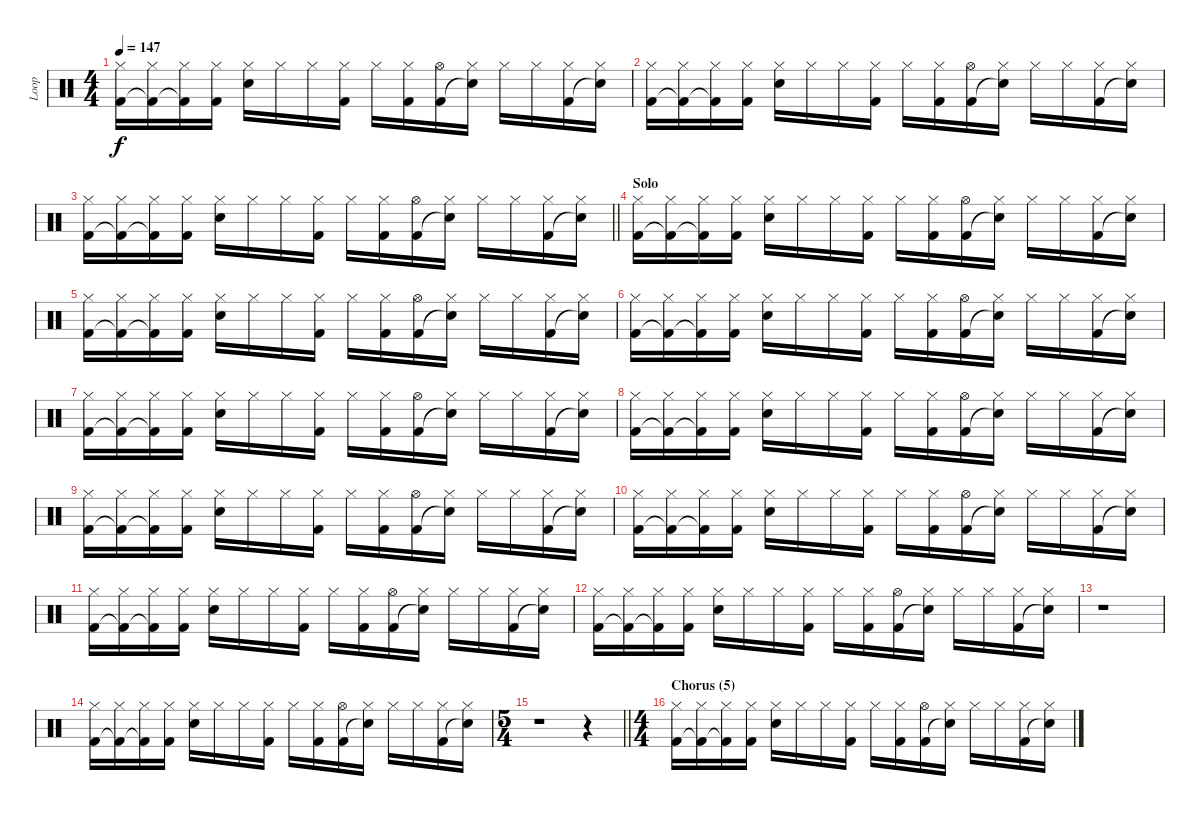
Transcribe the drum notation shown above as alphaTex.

\track ("Loop" "Loop") {instrument percussion}
\staff {score}
\articulation defaults
\ts (4 4)
\tempo 147
\clef neutral
\ks aminor
("Hi-Hat (closed)" "Kick (hit) 2").16{dy f} ("Hi-Hat (closed)" "Kick (hit) 2"{t}).16 ("Hi-Hat (closed)" "Kick (hit) 2"{t}).16 ("Hi-Hat (closed)" "Kick (hit) 2").16 ("Hi-Hat (closed)" "Electric Snare (hit)").16 "Hi-Hat (closed)".16 "Hi-Hat (closed)".16 ("Hi-Hat (closed)" "Kick (hit) 2").16 "Hi-Hat (closed)".16 ("Hi-Hat (closed)" "Kick (hit) 2").16 ("Hi-Hat (open)" "Kick (hit) 2").16 ("Hi-Hat (closed)" "Snare (hit)"{t}).16 "Hi-Hat (closed)".16 "Hi-Hat (closed)".16 ("Hi-Hat (closed)" "Kick (hit) 2").16 ("Hi-Hat (closed)" "Snare (hit)"{t}).16 |
("Hi-Hat (closed)" "Kick (hit) 2").16 ("Hi-Hat (closed)" "Kick (hit) 2"{t}).16 ("Hi-Hat (closed)" "Kick (hit) 2"{t}).16 ("Hi-Hat (closed)" "Kick (hit) 2").16 ("Hi-Hat (closed)" "Electric Snare (hit)").16 "Hi-Hat (closed)".16 "Hi-Hat (closed)".16 ("Hi-Hat (closed)" "Kick (hit) 2").16 "Hi-Hat (closed)".16 ("Hi-Hat (closed)" "Kick (hit) 2").16 ("Hi-Hat (open)" "Kick (hit) 2").16 ("Hi-Hat (closed)" "Snare (hit)"{t}).16 "Hi-Hat (closed)".16 "Hi-Hat (closed)".16 ("Hi-Hat (closed)" "Kick (hit) 2").16 ("Hi-Hat (closed)" "Snare (hit)"{t}).16 |
\barLineRight lightlight
("Hi-Hat (closed)" "Kick (hit) 2").16 ("Hi-Hat (closed)" "Kick (hit) 2"{t}).16 ("Hi-Hat (closed)" "Kick (hit) 2"{t}).16 ("Hi-Hat (closed)" "Kick (hit) 2").16 ("Hi-Hat (closed)" "Electric Snare (hit)").16 "Hi-Hat (closed)".16 "Hi-Hat (closed)".16 ("Hi-Hat (closed)" "Kick (hit) 2").16 "Hi-Hat (closed)".16 ("Hi-Hat (closed)" "Kick (hit) 2").16 ("Hi-Hat (open)" "Kick (hit) 2").16 ("Hi-Hat (closed)" "Snare (hit)"{t}).16 "Hi-Hat (closed)".16 "Hi-Hat (closed)".16 ("Hi-Hat (closed)" "Kick (hit) 2").16 ("Hi-Hat (closed)" "Snare (hit)"{t}).16 |
\section ("" "Solo")
("Hi-Hat (closed)" "Kick (hit) 2").16 ("Hi-Hat (closed)" "Kick (hit) 2"{t}).16 ("Hi-Hat (closed)" "Kick (hit) 2"{t}).16 ("Hi-Hat (closed)" "Kick (hit) 2").16 ("Hi-Hat (closed)" "Electric Snare (hit)").16 "Hi-Hat (closed)".16 "Hi-Hat (closed)".16 ("Hi-Hat (closed)" "Kick (hit) 2").16 "Hi-Hat (closed)".16 ("Hi-Hat (closed)" "Kick (hit) 2").16 ("Hi-Hat (open)" "Kick (hit) 2").16 ("Hi-Hat (closed)" "Snare (hit)"{t}).16 "Hi-Hat (closed)".16 "Hi-Hat (closed)".16 ("Hi-Hat (closed)" "Kick (hit) 2").16 ("Hi-Hat (closed)" "Snare (hit)"{t}).16 |
("Hi-Hat (closed)" "Kick (hit) 2").16 ("Hi-Hat (closed)" "Kick (hit) 2"{t}).16 ("Hi-Hat (closed)" "Kick (hit) 2"{t}).16 ("Hi-Hat (closed)" "Kick (hit) 2").16 ("Hi-Hat (closed)" "Electric Snare (hit)").16 "Hi-Hat (closed)".16 "Hi-Hat (closed)".16 ("Hi-Hat (closed)" "Kick (hit) 2").16 "Hi-Hat (closed)".16 ("Hi-Hat (closed)" "Kick (hit) 2").16 ("Hi-Hat (open)" "Kick (hit) 2").16 ("Hi-Hat (closed)" "Snare (hit)"{t}).16 "Hi-Hat (closed)".16 "Hi-Hat (closed)".16 ("Hi-Hat (closed)" "Kick (hit) 2").16 ("Hi-Hat (closed)" "Snare (hit)"{t}).16 |
("Hi-Hat (closed)" "Kick (hit) 2").16 ("Hi-Hat (closed)" "Kick (hit) 2"{t}).16 ("Hi-Hat (closed)" "Kick (hit) 2"{t}).16 ("Hi-Hat (closed)" "Kick (hit) 2").16 ("Hi-Hat (closed)" "Electric Snare (hit)").16 "Hi-Hat (closed)".16 "Hi-Hat (closed)".16 ("Hi-Hat (closed)" "Kick (hit) 2").16 "Hi-Hat (closed)".16 ("Hi-Hat (closed)" "Kick (hit) 2").16 ("Hi-Hat (open)" "Kick (hit) 2").16 ("Hi-Hat (closed)" "Snare (hit)"{t}).16 "Hi-Hat (closed)".16 "Hi-Hat (closed)".16 ("Hi-Hat (closed)" "Kick (hit) 2").16 ("Hi-Hat (closed)" "Snare (hit)"{t}).16 |
("Hi-Hat (closed)" "Kick (hit) 2").16 ("Hi-Hat (closed)" "Kick (hit) 2"{t}).16 ("Hi-Hat (closed)" "Kick (hit) 2"{t}).16 ("Hi-Hat (closed)" "Kick (hit) 2").16 ("Hi-Hat (closed)" "Electric Snare (hit)").16 "Hi-Hat (closed)".16 "Hi-Hat (closed)".16 ("Hi-Hat (closed)" "Kick (hit) 2").16 "Hi-Hat (closed)".16 ("Hi-Hat (closed)" "Kick (hit) 2").16 ("Hi-Hat (open)" "Kick (hit) 2").16 ("Hi-Hat (closed)" "Snare (hit)"{t}).16 "Hi-Hat (closed)".16 "Hi-Hat (closed)".16 ("Hi-Hat (closed)" "Kick (hit) 2").16 ("Hi-Hat (closed)" "Snare (hit)"{t}).16 |
("Hi-Hat (closed)" "Kick (hit) 2").16 ("Hi-Hat (closed)" "Kick (hit) 2"{t}).16 ("Hi-Hat (closed)" "Kick (hit) 2"{t}).16 ("Hi-Hat (closed)" "Kick (hit) 2").16 ("Hi-Hat (closed)" "Electric Snare (hit)").16 "Hi-Hat (closed)".16 "Hi-Hat (closed)".16 ("Hi-Hat (closed)" "Kick (hit) 2").16 "Hi-Hat (closed)".16 ("Hi-Hat (closed)" "Kick (hit) 2").16 ("Hi-Hat (open)" "Kick (hit) 2").16 ("Hi-Hat (closed)" "Snare (hit)"{t}).16 "Hi-Hat (closed)".16 "Hi-Hat (closed)".16 ("Hi-Hat (closed)" "Kick (hit) 2").16 ("Hi-Hat (closed)" "Snare (hit)"{t}).16 |
("Hi-Hat (closed)" "Kick (hit) 2").16 ("Hi-Hat (closed)" "Kick (hit) 2"{t}).16 ("Hi-Hat (closed)" "Kick (hit) 2"{t}).16 ("Hi-Hat (closed)" "Kick (hit) 2").16 ("Hi-Hat (closed)" "Electric Snare (hit)").16 "Hi-Hat (closed)".16 "Hi-Hat (closed)".16 ("Hi-Hat (closed)" "Kick (hit) 2").16 "Hi-Hat (closed)".16 ("Hi-Hat (closed)" "Kick (hit) 2").16 ("Hi-Hat (open)" "Kick (hit) 2").16 ("Hi-Hat (closed)" "Snare (hit)"{t}).16 "Hi-Hat (closed)".16 "Hi-Hat (closed)".16 ("Hi-Hat (closed)" "Kick (hit) 2").16 ("Hi-Hat (closed)" "Snare (hit)"{t}).16 |
("Hi-Hat (closed)" "Kick (hit) 2").16 ("Hi-Hat (closed)" "Kick (hit) 2"{t}).16 ("Hi-Hat (closed)" "Kick (hit) 2"{t}).16 ("Hi-Hat (closed)" "Kick (hit) 2").16 ("Hi-Hat (closed)" "Electric Snare (hit)").16 "Hi-Hat (closed)".16 "Hi-Hat (closed)".16 ("Hi-Hat (closed)" "Kick (hit) 2").16 "Hi-Hat (closed)".16 ("Hi-Hat (closed)" "Kick (hit) 2").16 ("Hi-Hat (open)" "Kick (hit) 2").16 ("Hi-Hat (closed)" "Snare (hit)"{t}).16 "Hi-Hat (closed)".16 "Hi-Hat (closed)".16 ("Hi-Hat (closed)" "Kick (hit) 2").16 ("Hi-Hat (closed)" "Snare (hit)"{t}).16 |
("Hi-Hat (closed)" "Kick (hit) 2").16 ("Hi-Hat (closed)" "Kick (hit) 2"{t}).16 ("Hi-Hat (closed)" "Kick (hit) 2"{t}).16 ("Hi-Hat (closed)" "Kick (hit) 2").16 ("Hi-Hat (closed)" "Electric Snare (hit)").16 "Hi-Hat (closed)".16 "Hi-Hat (closed)".16 ("Hi-Hat (closed)" "Kick (hit) 2").16 "Hi-Hat (closed)".16 ("Hi-Hat (closed)" "Kick (hit) 2").16 ("Hi-Hat (open)" "Kick (hit) 2").16 ("Hi-Hat (closed)" "Snare (hit)"{t}).16 "Hi-Hat (closed)".16 "Hi-Hat (closed)".16 ("Hi-Hat (closed)" "Kick (hit) 2").16 ("Hi-Hat (closed)" "Snare (hit)"{t}).16 |
("Hi-Hat (closed)" "Kick (hit) 2").16 ("Hi-Hat (closed)" "Kick (hit) 2"{t}).16 ("Hi-Hat (closed)" "Kick (hit) 2"{t}).16 ("Hi-Hat (closed)" "Kick (hit) 2").16 ("Hi-Hat (closed)" "Electric Snare (hit)").16 "Hi-Hat (closed)".16 "Hi-Hat (closed)".16 ("Hi-Hat (closed)" "Kick (hit) 2").16 "Hi-Hat (closed)".16 ("Hi-Hat (closed)" "Kick (hit) 2").16 ("Hi-Hat (open)" "Kick (hit) 2").16 ("Hi-Hat (closed)" "Snare (hit)"{t}).16 "Hi-Hat (closed)".16 "Hi-Hat (closed)".16 ("Hi-Hat (closed)" "Kick (hit) 2").16 ("Hi-Hat (closed)" "Snare (hit)"{t}).16 |
r.1 |
("Hi-Hat (closed)" "Kick (hit) 2").16 ("Hi-Hat (closed)" "Kick (hit) 2"{t}).16 ("Hi-Hat (closed)" "Kick (hit) 2"{t}).16 ("Hi-Hat (closed)" "Kick (hit) 2").16 ("Hi-Hat (closed)" "Electric Snare (hit)").16 "Hi-Hat (closed)".16 "Hi-Hat (closed)".16 ("Hi-Hat (closed)" "Kick (hit) 2").16 "Hi-Hat (closed)".16 ("Hi-Hat (closed)" "Kick (hit) 2").16 ("Hi-Hat (open)" "Kick (hit) 2").16 ("Hi-Hat (closed)" "Snare (hit)"{t}).16 "Hi-Hat (closed)".16 "Hi-Hat (closed)".16 ("Hi-Hat (closed)" "Kick (hit) 2").16 ("Hi-Hat (closed)" "Snare (hit)"{t}).16 |
\ts (5 4)
\barLineRight lightlight
r.1 r.4 |
\ts (4 4)
\section ("" "Chorus (5)")
("Hi-Hat (closed)" "Kick (hit) 2").16 ("Hi-Hat (closed)" "Kick (hit) 2"{t}).16 ("Hi-Hat (closed)" "Kick (hit) 2"{t}).16 ("Hi-Hat (closed)" "Kick (hit) 2").16 ("Hi-Hat (closed)" "Electric Snare (hit)").16 "Hi-Hat (closed)".16 "Hi-Hat (closed)".16 ("Hi-Hat (closed)" "Kick (hit) 2").16 "Hi-Hat (closed)".16 ("Hi-Hat (closed)" "Kick (hit) 2").16 ("Hi-Hat (open)" "Kick (hit) 2").16 ("Hi-Hat (closed)" "Snare (hit)"{t}).16 "Hi-Hat (closed)".16 "Hi-Hat (closed)".16 ("Hi-Hat (closed)" "Kick (hit) 2").16 ("Hi-Hat (closed)" "Snare (hit)"{t}).16
